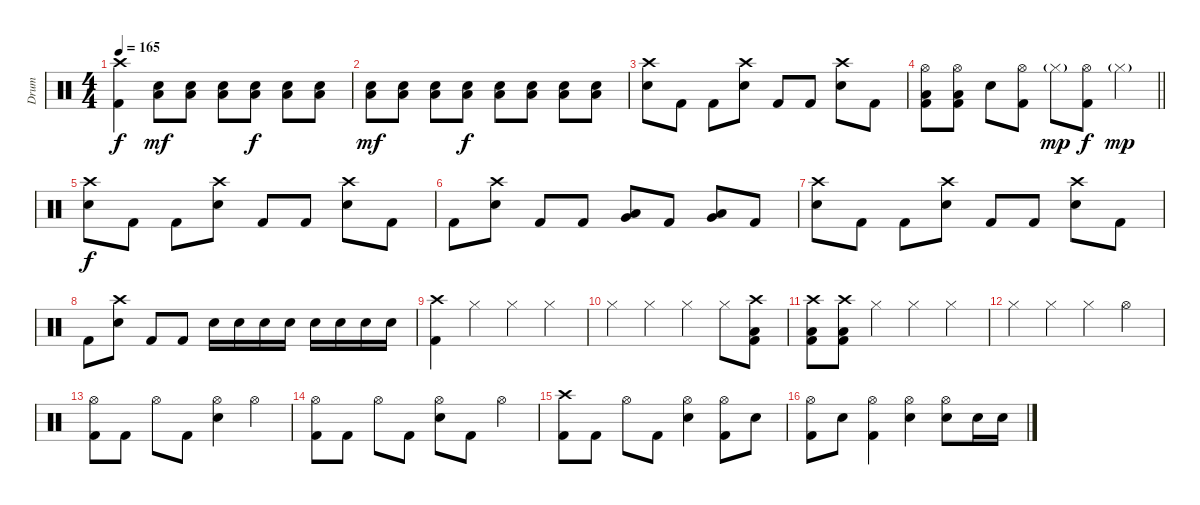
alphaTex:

\track ("Drum" "Drum") {instrument percussion}
\staff {score}
\articulation defaults
\ts (4 4)
\tempo 165
\clef neutral
\ks c
("Crash high (hit)" "Kick (hit) 2").4{dy f} ("Electric Snare (hit)" "Low Tom (hit)").8{dy mf} ("Electric Snare (hit)" "Low Tom (hit)").8 ("Electric Snare (hit)" "Low Tom (hit)").8 ("Electric Snare (hit)" "Low Tom (hit)").8{dy f} ("Electric Snare (hit)" "Low Tom (hit)").8 ("Electric Snare (hit)" "Low Tom (hit)").8 |
("Electric Snare (hit)" "Low Tom (hit)").8{dy mf} ("Electric Snare (hit)" "Low Tom (hit)").8 ("Electric Snare (hit)" "Low Tom (hit)").8 ("Electric Snare (hit)" "Low Tom (hit)").8{dy f} ("Electric Snare (hit)" "Low Tom (hit)").8 ("Electric Snare (hit)" "Low Tom (hit)").8 ("Electric Snare (hit)" "Low Tom (hit)").8 ("Electric Snare (hit)" "Low Tom (hit)").8 |
("Crash high (hit)" "Electric Snare (hit)").8 "Kick (hit) 2".8 "Kick (hit) 2".8 ("Crash high (hit)" "Electric Snare (hit)").8 "Kick (hit) 2".8 "Kick (hit) 2".8 ("Crash high (hit)" "Electric Snare (hit)").8 "Kick (hit) 2".8 |
\barLineRight lightlight
("Hi-Hat (open)" "Low Tom (hit)" "Kick (hit) 2").8 ("Hi-Hat (open)" "Low Tom (hit)" "Kick (hit) 2").8 "Electric Snare (hit)".8 ("Hi-Hat (open)" "Kick (hit) 2").8 "Hi-Hat (closed)"{g}.8{dy mp} ("Hi-Hat (open)" "Kick (hit) 2").8{dy f} "Hi-Hat (closed)"{g}.4{dy mp} |
("Crash high (hit)" "Electric Snare (hit)").8{dy f} "Kick (hit) 2".8 "Kick (hit) 2".8 ("Crash high (hit)" "Electric Snare (hit)").8 "Kick (hit) 2".8 "Kick (hit) 2".8 ("Crash high (hit)" "Electric Snare (hit)").8 "Kick (hit) 2".8 |
"Kick (hit) 2".8 ("Crash high (hit)" "Electric Snare (hit)").8 "Kick (hit) 2".8 "Kick (hit) 2".8 ("Low Tom (hit)" "Very Low Tom (hit)").8 "Kick (hit) 2".8 ("Very Low Tom (hit)" "Low Floor Tom (hit)").8 "Kick (hit) 2".8 |
("Crash high (hit)" "Electric Snare (hit)").8 "Kick (hit) 2".8 "Kick (hit) 2".8 ("Crash high (hit)" "Electric Snare (hit)").8 "Kick (hit) 2".8 "Kick (hit) 2".8 ("Crash high (hit)" "Electric Snare (hit)").8 "Kick (hit) 2".8 |
"Kick (hit) 2".8 ("Crash high (hit)" "Electric Snare (hit)").8 "Kick (hit) 2".8 "Kick (hit) 2".8 "Electric Snare (hit)".16 "Electric Snare (hit)".16 "Electric Snare (hit)".16 "Electric Snare (hit)".16 "Electric Snare (hit)".16 "Electric Snare (hit)".16 "Electric Snare (hit)".16 "Electric Snare (hit)".16 |
("Crash high (hit)" "Kick (hit) 2").4 "Hi-Hat (closed)".4 "Hi-Hat (closed)".4 "Hi-Hat (closed)".4 |
"Hi-Hat (closed)".4 "Hi-Hat (closed)".4 "Hi-Hat (closed)".4 "Hi-Hat (closed)".8 ("Crash high (hit)" "Low Tom (hit)" "Kick (hit) 2").8 |
("Crash high (hit)" "Low Tom (hit)" "Kick (hit) 2").8 ("Crash high (hit)" "Low Tom (hit)" "Kick (hit) 2").8 "Hi-Hat (closed)".4 "Hi-Hat (closed)".4 "Hi-Hat (closed)".4 |
"Hi-Hat (closed)".4 "Hi-Hat (closed)".4 "Hi-Hat (closed)".4 "Hi-Hat (open)".4 |
("Hi-Hat (open)" "Kick (hit) 2").8 "Kick (hit) 2".8 "Hi-Hat (open)".8 "Kick (hit) 2".8 ("Hi-Hat (open)" "Electric Snare (hit)").4 "Hi-Hat (open)".4 |
("Hi-Hat (open)" "Kick (hit) 2").8 "Kick (hit) 2".8 "Hi-Hat (open)".8 "Kick (hit) 2".8 ("Hi-Hat (open)" "Electric Snare (hit)").8 "Kick (hit) 2".8 "Hi-Hat (open)".4 |
("Crash high (hit)" "Kick (hit) 2").8 "Kick (hit) 2".8 "Hi-Hat (open)".8 "Kick (hit) 2".8 ("Hi-Hat (open)" "Electric Snare (hit)").4 ("Hi-Hat (open)" "Kick (hit) 2").8 "Electric Snare (hit)".8 |
("Hi-Hat (open)" "Kick (hit) 2").8 "Electric Snare (hit)".8 ("Hi-Hat (open)" "Kick (hit) 2").4 ("Hi-Hat (open)" "Electric Snare (hit)").4 ("Hi-Hat (open)" "Electric Snare (hit)").8 "Electric Snare (hit)".16 "Electric Snare (hit)".16
